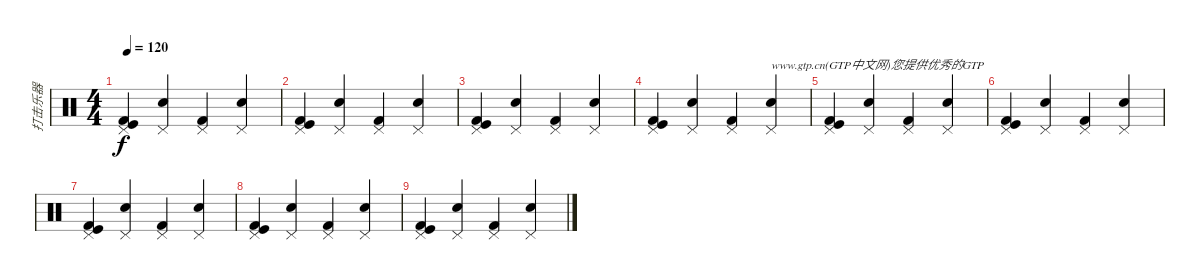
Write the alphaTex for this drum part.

\track ("打击乐器" "打击乐器") {instrument percussion}
\staff {score}
\articulation defaults
\ts (4 4)
\tempo 120
\clef neutral
\ks c
("Kick (hit) 2" "Kick (hit)" "Pedal Hi-Hat (hit)").4{dy f} ("Pedal Hi-Hat (hit)" "Electric Snare (hit)").4 ("Kick (hit) 2" "Pedal Hi-Hat (hit)").4 ("Pedal Hi-Hat (hit)" "Electric Snare (hit)").4 |
("Kick (hit) 2" "Kick (hit)" "Pedal Hi-Hat (hit)").4 ("Pedal Hi-Hat (hit)" "Electric Snare (hit)").4 ("Kick (hit) 2" "Pedal Hi-Hat (hit)").4 ("Pedal Hi-Hat (hit)" "Electric Snare (hit)").4 |
("Kick (hit) 2" "Kick (hit)" "Pedal Hi-Hat (hit)").4 ("Pedal Hi-Hat (hit)" "Electric Snare (hit)").4 ("Kick (hit) 2" "Pedal Hi-Hat (hit)").4 ("Pedal Hi-Hat (hit)" "Electric Snare (hit)").4 |
("Kick (hit) 2" "Kick (hit)" "Pedal Hi-Hat (hit)").4 ("Pedal Hi-Hat (hit)" "Electric Snare (hit)").4 ("Kick (hit) 2" "Pedal Hi-Hat (hit)").4 ("Pedal Hi-Hat (hit)" "Electric Snare (hit)").4{txt "www.gtp.cn(GTP中文网)您提供优秀的GTP"} |
("Kick (hit) 2" "Kick (hit)" "Pedal Hi-Hat (hit)").4 ("Pedal Hi-Hat (hit)" "Electric Snare (hit)").4 ("Kick (hit) 2" "Pedal Hi-Hat (hit)").4 ("Pedal Hi-Hat (hit)" "Electric Snare (hit)").4 |
("Kick (hit) 2" "Kick (hit)" "Pedal Hi-Hat (hit)").4 ("Pedal Hi-Hat (hit)" "Electric Snare (hit)").4 ("Kick (hit) 2" "Pedal Hi-Hat (hit)").4 ("Pedal Hi-Hat (hit)" "Electric Snare (hit)").4 |
("Kick (hit) 2" "Kick (hit)" "Pedal Hi-Hat (hit)").4 ("Pedal Hi-Hat (hit)" "Electric Snare (hit)").4 ("Kick (hit) 2" "Pedal Hi-Hat (hit)").4 ("Pedal Hi-Hat (hit)" "Electric Snare (hit)").4 |
("Kick (hit) 2" "Kick (hit)" "Pedal Hi-Hat (hit)").4 ("Pedal Hi-Hat (hit)" "Electric Snare (hit)").4 ("Kick (hit) 2" "Pedal Hi-Hat (hit)").4 ("Pedal Hi-Hat (hit)" "Electric Snare (hit)").4 |
("Kick (hit) 2" "Kick (hit)" "Pedal Hi-Hat (hit)").4 ("Pedal Hi-Hat (hit)" "Electric Snare (hit)").4 ("Kick (hit) 2" "Pedal Hi-Hat (hit)").4 ("Pedal Hi-Hat (hit)" "Electric Snare (hit)").4
